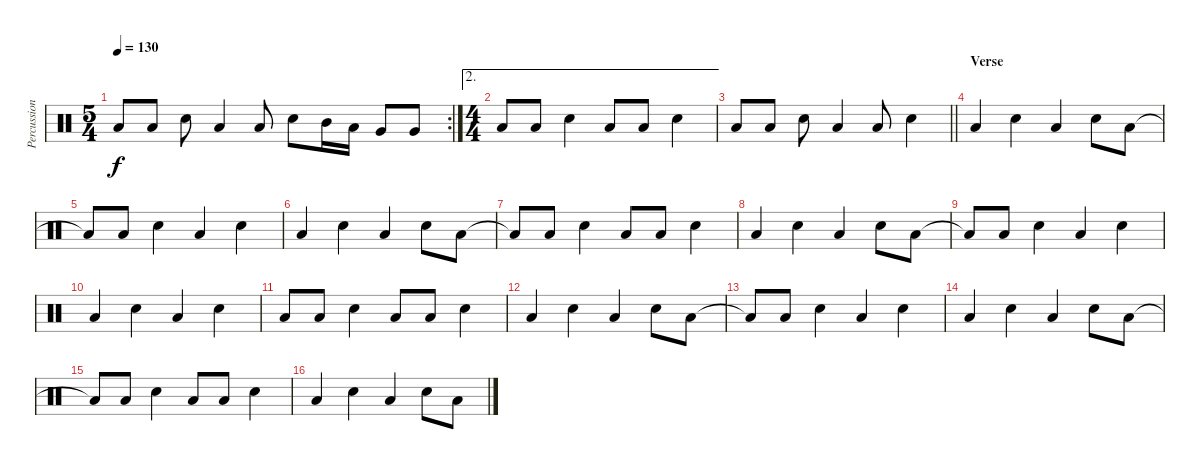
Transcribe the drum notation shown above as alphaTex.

\track ("Percussion 1" "Percussion") {instrument percussion}
\staff {score}
\articulation defaults
\rc 2
\ts (5 4)
\tempo 130
\clef neutral
\ks c "Low Floor Tom (hit)".8{dy f} "Low Floor Tom (hit)".8 "Electric Snare (hit)".8 "Low Floor Tom (hit)".4 "Low Floor Tom (hit)".8 "Electric Snare (hit)".8 "Mid Tom (hit)".16 "Low Tom (hit)".16 "Very Low Tom (hit)".8 "Very Low Tom (hit)".8
|
\ae 2
\ts (4 4)
"Low Floor Tom (hit)".8 "Low Floor Tom (hit)".8 "Electric Snare (hit)".4 "Low Floor Tom (hit)".8 "Low Floor Tom (hit)".8 "Electric Snare (hit)".4 |
\barLineRight lightlight "Low Floor Tom (hit)".8 "Low Floor Tom (hit)".8 "Electric Snare (hit)".8 "Low Floor Tom (hit)".4 "Low Floor Tom (hit)".8 "Electric Snare (hit)".4
|
\section ("" "Verse")
"Low Floor Tom (hit)".4 "Electric Snare (hit)".4 "Low Floor Tom (hit)".4 "Electric Snare (hit)".8 "Low Floor Tom (hit)".8 |
"Low Floor Tom (hit)"{t}.8 "Low Floor Tom (hit)".8 "Electric Snare (hit)".4 "Low Floor Tom (hit)".4 "Electric Snare (hit)".4 |
"Low Floor Tom (hit)".4 "Electric Snare (hit)".4 "Low Floor Tom (hit)".4 "Electric Snare (hit)".8 "Low Floor Tom (hit)".8 |
"Low Floor Tom (hit)"{t}.8 "Low Floor Tom (hit)".8 "Electric Snare (hit)".4 "Low Floor Tom (hit)".8 "Low Floor Tom (hit)".8 "Electric Snare (hit)".4 |
"Low Floor Tom (hit)".4 "Electric Snare (hit)".4 "Low Floor Tom (hit)".4 "Electric Snare (hit)".8 "Low Floor Tom (hit)".8 |
"Low Floor Tom (hit)"{t}.8 "Low Floor Tom (hit)".8 "Electric Snare (hit)".4 "Low Floor Tom (hit)".4 "Electric Snare (hit)".4 |
"Low Floor Tom (hit)".4 "Electric Snare (hit)".4 "Low Floor Tom (hit)".4 "Electric Snare (hit)".4 |
"Low Floor Tom (hit)".8 "Low Floor Tom (hit)".8 "Electric Snare (hit)".4 "Low Floor Tom (hit)".8 "Low Floor Tom (hit)".8 "Electric Snare (hit)".4 |
"Low Floor Tom (hit)".4 "Electric Snare (hit)".4 "Low Floor Tom (hit)".4 "Electric Snare (hit)".8 "Low Floor Tom (hit)".8 |
"Low Floor Tom (hit)"{t}.8 "Low Floor Tom (hit)".8 "Electric Snare (hit)".4 "Low Floor Tom (hit)".4 "Electric Snare (hit)".4 |
"Low Floor Tom (hit)".4 "Electric Snare (hit)".4 "Low Floor Tom (hit)".4 "Electric Snare (hit)".8 "Low Floor Tom (hit)".8 |
"Low Floor Tom (hit)"{t}.8 "Low Floor Tom (hit)".8 "Electric Snare (hit)".4 "Low Floor Tom (hit)".8 "Low Floor Tom (hit)".8 "Electric Snare (hit)".4 |
"Low Floor Tom (hit)".4 "Electric Snare (hit)".4 "Low Floor Tom (hit)".4 "Electric Snare (hit)".8 "Low Floor Tom (hit)".8
